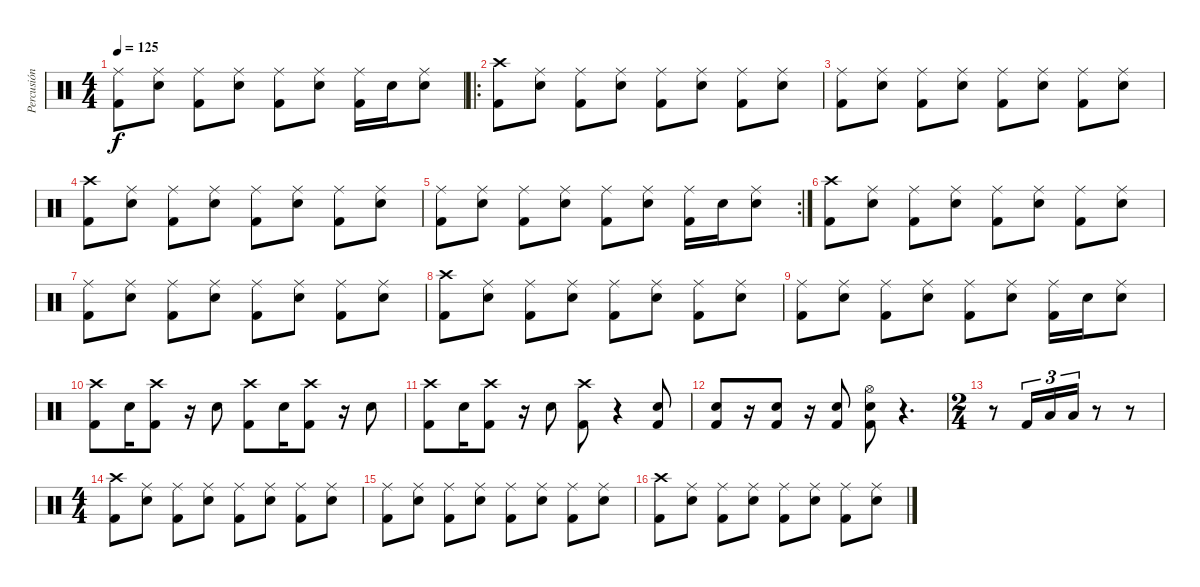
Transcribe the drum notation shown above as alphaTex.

\track ("Percusión" "Percusión") {instrument percussion}
\staff {score}
\articulation defaults
\ts (4 4)
\tempo 125
\clef neutral
\ks c
("Ride (middle)" "Kick (hit) 2").8{dy f} ("Ride (middle)" "Electric Snare (hit)").8 ("Ride (middle)" "Kick (hit) 2").8 ("Ride (middle)" "Electric Snare (hit)").8 ("Ride (middle)" "Kick (hit) 2").8 ("Ride (middle)" "Electric Snare (hit)").8 ("Ride (middle)" "Kick (hit) 2").16 "Electric Snare (hit)".16 ("Ride (middle)" "Electric Snare (hit)").8 |
\ro
("Crash high (hit)" "Kick (hit) 2").8 ("Ride (middle)" "Electric Snare (hit)").8 ("Ride (middle)" "Kick (hit) 2").8 ("Ride (middle)" "Electric Snare (hit)").8 ("Ride (middle)" "Kick (hit) 2").8 ("Ride (middle)" "Electric Snare (hit)").8 ("Ride (middle)" "Kick (hit) 2").8 ("Ride (middle)" "Electric Snare (hit)").8 |
("Ride (middle)" "Kick (hit) 2").8 ("Ride (middle)" "Electric Snare (hit)").8 ("Ride (middle)" "Kick (hit) 2").8 ("Ride (middle)" "Electric Snare (hit)").8 ("Ride (middle)" "Kick (hit) 2").8 ("Ride (middle)" "Electric Snare (hit)").8 ("Ride (middle)" "Kick (hit) 2").8 ("Ride (middle)" "Electric Snare (hit)").8 |
("Crash high (hit)" "Kick (hit) 2").8 ("Ride (middle)" "Electric Snare (hit)").8 ("Ride (middle)" "Kick (hit) 2").8 ("Ride (middle)" "Electric Snare (hit)").8 ("Ride (middle)" "Kick (hit) 2").8 ("Ride (middle)" "Electric Snare (hit)").8 ("Ride (middle)" "Kick (hit) 2").8 ("Ride (middle)" "Electric Snare (hit)").8 |
\rc 2
("Ride (middle)" "Kick (hit) 2").8 ("Ride (middle)" "Electric Snare (hit)").8 ("Ride (middle)" "Kick (hit) 2").8 ("Ride (middle)" "Electric Snare (hit)").8 ("Ride (middle)" "Kick (hit) 2").8 ("Ride (middle)" "Electric Snare (hit)").8 ("Ride (middle)" "Kick (hit) 2").16 "Electric Snare (hit)".16 ("Ride (middle)" "Electric Snare (hit)").8 |
("Crash high (hit)" "Kick (hit) 2").8 ("Ride (middle)" "Electric Snare (hit)").8 ("Ride (middle)" "Kick (hit) 2").8 ("Ride (middle)" "Electric Snare (hit)").8 ("Ride (middle)" "Kick (hit) 2").8 ("Ride (middle)" "Electric Snare (hit)").8 ("Ride (middle)" "Kick (hit) 2").8 ("Ride (middle)" "Electric Snare (hit)").8 |
("Ride (middle)" "Kick (hit) 2").8 ("Ride (middle)" "Electric Snare (hit)").8 ("Ride (middle)" "Kick (hit) 2").8 ("Ride (middle)" "Electric Snare (hit)").8 ("Ride (middle)" "Kick (hit) 2").8 ("Ride (middle)" "Electric Snare (hit)").8 ("Ride (middle)" "Kick (hit) 2").8 ("Ride (middle)" "Electric Snare (hit)").8 |
("Crash high (hit)" "Kick (hit) 2").8 ("Ride (middle)" "Electric Snare (hit)").8 ("Ride (middle)" "Kick (hit) 2").8 ("Ride (middle)" "Electric Snare (hit)").8 ("Ride (middle)" "Kick (hit) 2").8 ("Ride (middle)" "Electric Snare (hit)").8 ("Ride (middle)" "Kick (hit) 2").8 ("Ride (middle)" "Electric Snare (hit)").8 |
("Ride (middle)" "Kick (hit) 2").8 ("Ride (middle)" "Electric Snare (hit)").8 ("Ride (middle)" "Kick (hit) 2").8 ("Ride (middle)" "Electric Snare (hit)").8 ("Ride (middle)" "Kick (hit) 2").8 ("Ride (middle)" "Electric Snare (hit)").8 ("Ride (middle)" "Kick (hit) 2").16 "Electric Snare (hit)".16 ("Ride (middle)" "Electric Snare (hit)").8 |
("Crash high (hit)" "Kick (hit) 2").8 "Electric Snare (hit)".16 ("Crash high (hit)" "Kick (hit) 2").8 r.16 "Electric Snare (hit)".8 ("Crash high (hit)" "Kick (hit) 2").8 "Electric Snare (hit)".16 ("Crash high (hit)" "Kick (hit) 2").8 r.16 "Electric Snare (hit)".8 |
("Crash high (hit)" "Kick (hit) 2").8 "Electric Snare (hit)".16 ("Crash high (hit)" "Kick (hit) 2").8 r.16 "Electric Snare (hit)".8 ("Crash high (hit)" "Kick (hit) 2").8 r.4 ("Electric Snare (hit)" "Kick (hit) 2").8 |
("Electric Snare (hit)" "Kick (hit) 2").8 r.16 ("Electric Snare (hit)" "Kick (hit) 2").8 r.16 ("Electric Snare (hit)" "Kick (hit) 2").8 ("Hi-Hat (open)" "Electric Snare (hit)" "Kick (hit) 2").8 r.4{d} |
\ts (2 4)
r.8 "Kick (hit) 2".16{tu (3 2)} "Low Floor Tom (hit)".16{tu (3 2)} "Low Floor Tom (hit)".16{tu (3 2)} r.8 r.8 |
\ts (4 4)
("Crash high (hit)" "Kick (hit) 2").8 ("Ride (middle)" "Electric Snare (hit)").8 ("Ride (middle)" "Kick (hit) 2").8 ("Ride (middle)" "Electric Snare (hit)").8 ("Ride (middle)" "Kick (hit) 2").8 ("Ride (middle)" "Electric Snare (hit)").8 ("Ride (middle)" "Kick (hit) 2").8 ("Ride (middle)" "Electric Snare (hit)").8 |
("Ride (middle)" "Kick (hit) 2").8 ("Ride (middle)" "Electric Snare (hit)").8 ("Ride (middle)" "Kick (hit) 2").8 ("Ride (middle)" "Electric Snare (hit)").8 ("Ride (middle)" "Kick (hit) 2").8 ("Ride (middle)" "Electric Snare (hit)").8 ("Ride (middle)" "Kick (hit) 2").8 ("Ride (middle)" "Electric Snare (hit)").8 |
("Crash high (hit)" "Kick (hit) 2").8 ("Ride (middle)" "Electric Snare (hit)").8 ("Ride (middle)" "Kick (hit) 2").8 ("Ride (middle)" "Electric Snare (hit)").8 ("Ride (middle)" "Kick (hit) 2").8 ("Ride (middle)" "Electric Snare (hit)").8 ("Ride (middle)" "Kick (hit) 2").8 ("Ride (middle)" "Electric Snare (hit)").8
